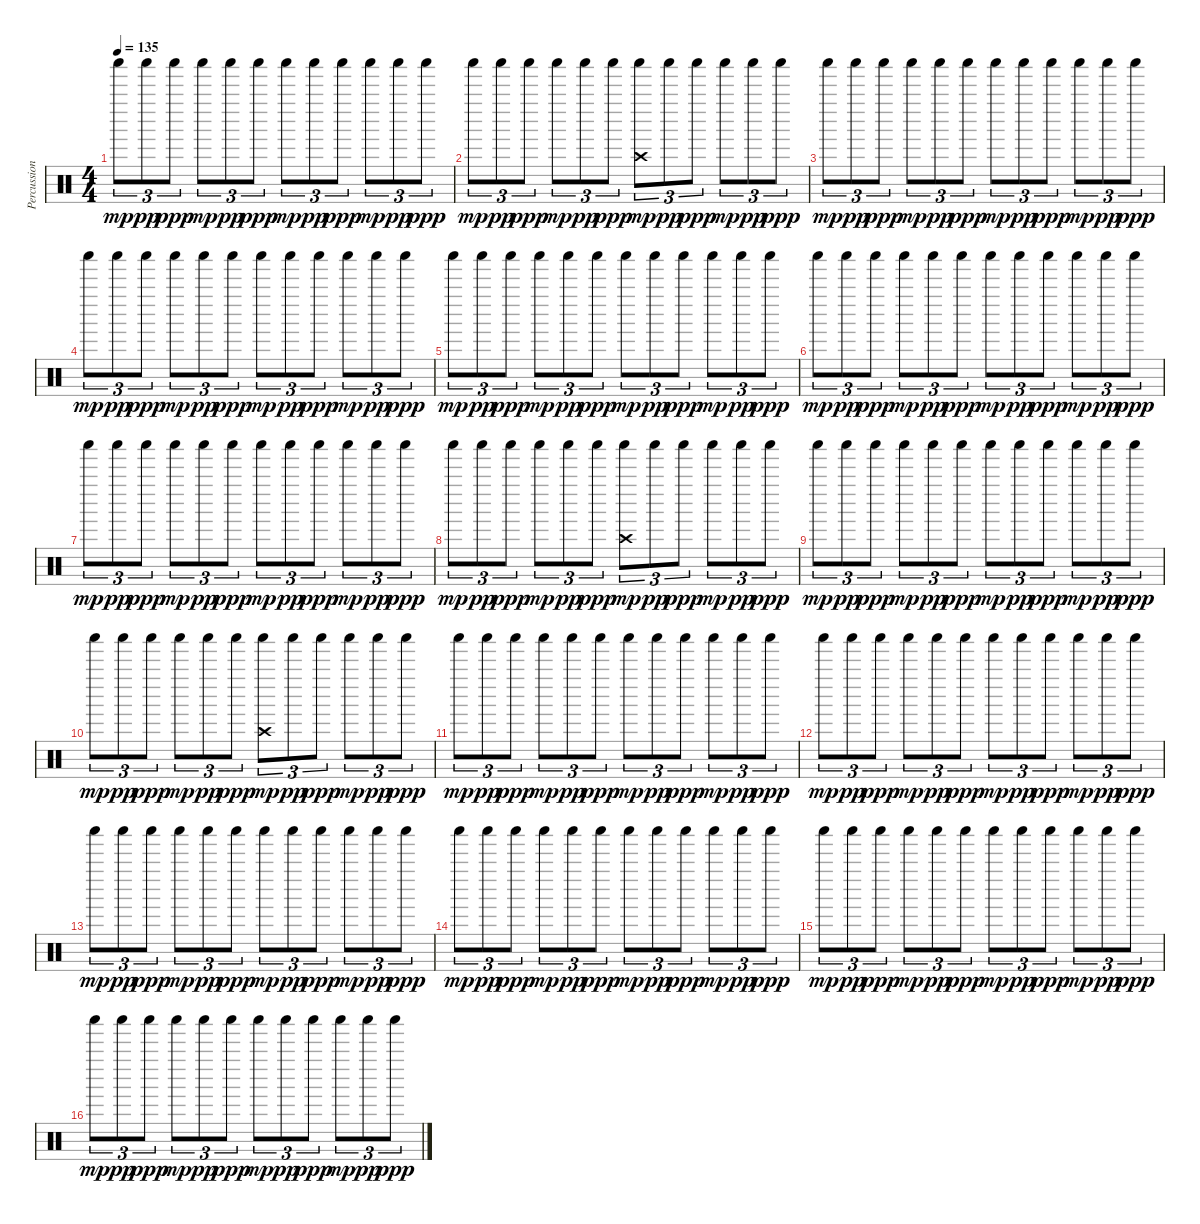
\track ("Percussion" "Percussion") {instrument percussion}
\staff {score}
\articulation defaults
\ts (4 4)
\tempo 135
\clef neutral
\ks c "Shaker (hit)".8{tu (3 2) dy mp} "Shaker (hit)".8{tu (3 2) dy pp} "Shaker (hit)".8{tu (3 2) dy ppp} "Shaker (hit)".8{tu (3 2) dy mp} "Shaker (hit)".8{tu (3 2) dy pp} "Shaker (hit)".8{tu (3 2) dy ppp} "Shaker (hit)".8{tu (3 2) dy mp} "Shaker (hit)".8{tu (3 2) dy pp} "Shaker (hit)".8{tu (3 2) dy ppp} "Shaker (hit)".8{tu (3 2) dy mp} "Shaker (hit)".8{tu (3 2) dy pp} "Shaker (hit)".8{tu (3 2) dy ppp}
|
"Shaker (hit)".8{tu (3 2) dy mp} "Shaker (hit)".8{tu (3 2) dy pp} "Shaker (hit)".8{tu (3 2) dy ppp} "Shaker (hit)".8{tu (3 2) dy mp} "Shaker (hit)".8{tu (3 2) dy pp} "Shaker (hit)".8{tu (3 2) dy ppp} ("Shaker (hit)" "Crash high (hit)").8{tu (3 2) dy mp} "Shaker (hit)".8{tu (3 2) dy pp} "Shaker (hit)".8{tu (3 2) dy ppp} "Shaker (hit)".8{tu (3 2) dy mp} "Shaker (hit)".8{tu (3 2) dy pp} "Shaker (hit)".8{tu (3 2) dy ppp} |
"Shaker (hit)".8{tu (3 2) dy mp} "Shaker (hit)".8{tu (3 2) dy pp} "Shaker (hit)".8{tu (3 2) dy ppp} "Shaker (hit)".8{tu (3 2) dy mp} "Shaker (hit)".8{tu (3 2) dy pp} "Shaker (hit)".8{tu (3 2) dy ppp} "Shaker (hit)".8{tu (3 2) dy mp} "Shaker (hit)".8{tu (3 2) dy pp} "Shaker (hit)".8{tu (3 2) dy ppp} "Shaker (hit)".8{tu (3 2) dy mp} "Shaker (hit)".8{tu (3 2) dy pp} "Shaker (hit)".8{tu (3 2) dy ppp} |
"Shaker (hit)".8{tu (3 2) dy mp} "Shaker (hit)".8{tu (3 2) dy pp} "Shaker (hit)".8{tu (3 2) dy ppp} "Shaker (hit)".8{tu (3 2) dy mp} "Shaker (hit)".8{tu (3 2) dy pp} "Shaker (hit)".8{tu (3 2) dy ppp} "Shaker (hit)".8{tu (3 2) dy mp} "Shaker (hit)".8{tu (3 2) dy pp} "Shaker (hit)".8{tu (3 2) dy ppp} "Shaker (hit)".8{tu (3 2) dy mp} "Shaker (hit)".8{tu (3 2) dy pp} "Shaker (hit)".8{tu (3 2) dy ppp} |
"Shaker (hit)".8{tu (3 2) dy mp} "Shaker (hit)".8{tu (3 2) dy pp} "Shaker (hit)".8{tu (3 2) dy ppp} "Shaker (hit)".8{tu (3 2) dy mp} "Shaker (hit)".8{tu (3 2) dy pp} "Shaker (hit)".8{tu (3 2) dy ppp} "Shaker (hit)".8{tu (3 2) dy mp} "Shaker (hit)".8{tu (3 2) dy pp} "Shaker (hit)".8{tu (3 2) dy ppp} "Shaker (hit)".8{tu (3 2) dy mp} "Shaker (hit)".8{tu (3 2) dy pp} "Shaker (hit)".8{tu (3 2) dy ppp} |
"Shaker (hit)".8{tu (3 2) dy mp} "Shaker (hit)".8{tu (3 2) dy pp} "Shaker (hit)".8{tu (3 2) dy ppp} "Shaker (hit)".8{tu (3 2) dy mp} "Shaker (hit)".8{tu (3 2) dy pp} "Shaker (hit)".8{tu (3 2) dy ppp} "Shaker (hit)".8{tu (3 2) dy mp} "Shaker (hit)".8{tu (3 2) dy pp} "Shaker (hit)".8{tu (3 2) dy ppp} "Shaker (hit)".8{tu (3 2) dy mp} "Shaker (hit)".8{tu (3 2) dy pp} "Shaker (hit)".8{tu (3 2) dy ppp} |
"Shaker (hit)".8{tu (3 2) dy mp} "Shaker (hit)".8{tu (3 2) dy pp} "Shaker (hit)".8{tu (3 2) dy ppp} "Shaker (hit)".8{tu (3 2) dy mp} "Shaker (hit)".8{tu (3 2) dy pp} "Shaker (hit)".8{tu (3 2) dy ppp} "Shaker (hit)".8{tu (3 2) dy mp} "Shaker (hit)".8{tu (3 2) dy pp} "Shaker (hit)".8{tu (3 2) dy ppp} "Shaker (hit)".8{tu (3 2) dy mp} "Shaker (hit)".8{tu (3 2) dy pp} "Shaker (hit)".8{tu (3 2) dy ppp} |
"Shaker (hit)".8{tu (3 2) dy mp} "Shaker (hit)".8{tu (3 2) dy pp} "Shaker (hit)".8{tu (3 2) dy ppp} "Shaker (hit)".8{tu (3 2) dy mp} "Shaker (hit)".8{tu (3 2) dy pp} "Shaker (hit)".8{tu (3 2) dy ppp} ("Shaker (hit)" "Crash high (hit)").8{tu (3 2) dy mp} "Shaker (hit)".8{tu (3 2) dy pp} "Shaker (hit)".8{tu (3 2) dy ppp} "Shaker (hit)".8{tu (3 2) dy mp} "Shaker (hit)".8{tu (3 2) dy pp} "Shaker (hit)".8{tu (3 2) dy ppp} |
"Shaker (hit)".8{tu (3 2) dy mp} "Shaker (hit)".8{tu (3 2) dy pp} "Shaker (hit)".8{tu (3 2) dy ppp} "Shaker (hit)".8{tu (3 2) dy mp} "Shaker (hit)".8{tu (3 2) dy pp} "Shaker (hit)".8{tu (3 2) dy ppp} "Shaker (hit)".8{tu (3 2) dy mp} "Shaker (hit)".8{tu (3 2) dy pp} "Shaker (hit)".8{tu (3 2) dy ppp} "Shaker (hit)".8{tu (3 2) dy mp} "Shaker (hit)".8{tu (3 2) dy pp} "Shaker (hit)".8{tu (3 2) dy ppp} |
"Shaker (hit)".8{tu (3 2) dy mp} "Shaker (hit)".8{tu (3 2) dy pp} "Shaker (hit)".8{tu (3 2) dy ppp} "Shaker (hit)".8{tu (3 2) dy mp} "Shaker (hit)".8{tu (3 2) dy pp} "Shaker (hit)".8{tu (3 2) dy ppp} ("Shaker (hit)" "Crash high (hit)").8{tu (3 2) dy mp} "Shaker (hit)".8{tu (3 2) dy pp} "Shaker (hit)".8{tu (3 2) dy ppp} "Shaker (hit)".8{tu (3 2) dy mp} "Shaker (hit)".8{tu (3 2) dy pp} "Shaker (hit)".8{tu (3 2) dy ppp} |
"Shaker (hit)".8{tu (3 2) dy mp} "Shaker (hit)".8{tu (3 2) dy pp} "Shaker (hit)".8{tu (3 2) dy ppp} "Shaker (hit)".8{tu (3 2) dy mp} "Shaker (hit)".8{tu (3 2) dy pp} "Shaker (hit)".8{tu (3 2) dy ppp} "Shaker (hit)".8{tu (3 2) dy mp} "Shaker (hit)".8{tu (3 2) dy pp} "Shaker (hit)".8{tu (3 2) dy ppp} "Shaker (hit)".8{tu (3 2) dy mp} "Shaker (hit)".8{tu (3 2) dy pp} "Shaker (hit)".8{tu (3 2) dy ppp} |
"Shaker (hit)".8{tu (3 2) dy mp} "Shaker (hit)".8{tu (3 2) dy pp} "Shaker (hit)".8{tu (3 2) dy ppp} "Shaker (hit)".8{tu (3 2) dy mp} "Shaker (hit)".8{tu (3 2) dy pp} "Shaker (hit)".8{tu (3 2) dy ppp} "Shaker (hit)".8{tu (3 2) dy mp} "Shaker (hit)".8{tu (3 2) dy pp} "Shaker (hit)".8{tu (3 2) dy ppp} "Shaker (hit)".8{tu (3 2) dy mp} "Shaker (hit)".8{tu (3 2) dy pp} "Shaker (hit)".8{tu (3 2) dy ppp} |
"Shaker (hit)".8{tu (3 2) dy mp} "Shaker (hit)".8{tu (3 2) dy pp} "Shaker (hit)".8{tu (3 2) dy ppp} "Shaker (hit)".8{tu (3 2) dy mp} "Shaker (hit)".8{tu (3 2) dy pp} "Shaker (hit)".8{tu (3 2) dy ppp} "Shaker (hit)".8{tu (3 2) dy mp} "Shaker (hit)".8{tu (3 2) dy pp} "Shaker (hit)".8{tu (3 2) dy ppp} "Shaker (hit)".8{tu (3 2) dy mp} "Shaker (hit)".8{tu (3 2) dy pp} "Shaker (hit)".8{tu (3 2) dy ppp} |
"Shaker (hit)".8{tu (3 2) dy mp} "Shaker (hit)".8{tu (3 2) dy pp} "Shaker (hit)".8{tu (3 2) dy ppp} "Shaker (hit)".8{tu (3 2) dy mp} "Shaker (hit)".8{tu (3 2) dy pp} "Shaker (hit)".8{tu (3 2) dy ppp} "Shaker (hit)".8{tu (3 2) dy mp} "Shaker (hit)".8{tu (3 2) dy pp} "Shaker (hit)".8{tu (3 2) dy ppp} "Shaker (hit)".8{tu (3 2) dy mp} "Shaker (hit)".8{tu (3 2) dy pp} "Shaker (hit)".8{tu (3 2) dy ppp} |
"Shaker (hit)".8{tu (3 2) dy mp} "Shaker (hit)".8{tu (3 2) dy pp} "Shaker (hit)".8{tu (3 2) dy ppp} "Shaker (hit)".8{tu (3 2) dy mp} "Shaker (hit)".8{tu (3 2) dy pp} "Shaker (hit)".8{tu (3 2) dy ppp} "Shaker (hit)".8{tu (3 2) dy mp} "Shaker (hit)".8{tu (3 2) dy pp} "Shaker (hit)".8{tu (3 2) dy ppp} "Shaker (hit)".8{tu (3 2) dy mp} "Shaker (hit)".8{tu (3 2) dy pp} "Shaker (hit)".8{tu (3 2) dy ppp} |
"Shaker (hit)".8{tu (3 2) dy mp} "Shaker (hit)".8{tu (3 2) dy pp} "Shaker (hit)".8{tu (3 2) dy ppp} "Shaker (hit)".8{tu (3 2) dy mp} "Shaker (hit)".8{tu (3 2) dy pp} "Shaker (hit)".8{tu (3 2) dy ppp} "Shaker (hit)".8{tu (3 2) dy mp} "Shaker (hit)".8{tu (3 2) dy pp} "Shaker (hit)".8{tu (3 2) dy ppp} "Shaker (hit)".8{tu (3 2) dy mp} "Shaker (hit)".8{tu (3 2) dy pp} "Shaker (hit)".8{tu (3 2) dy ppp}
